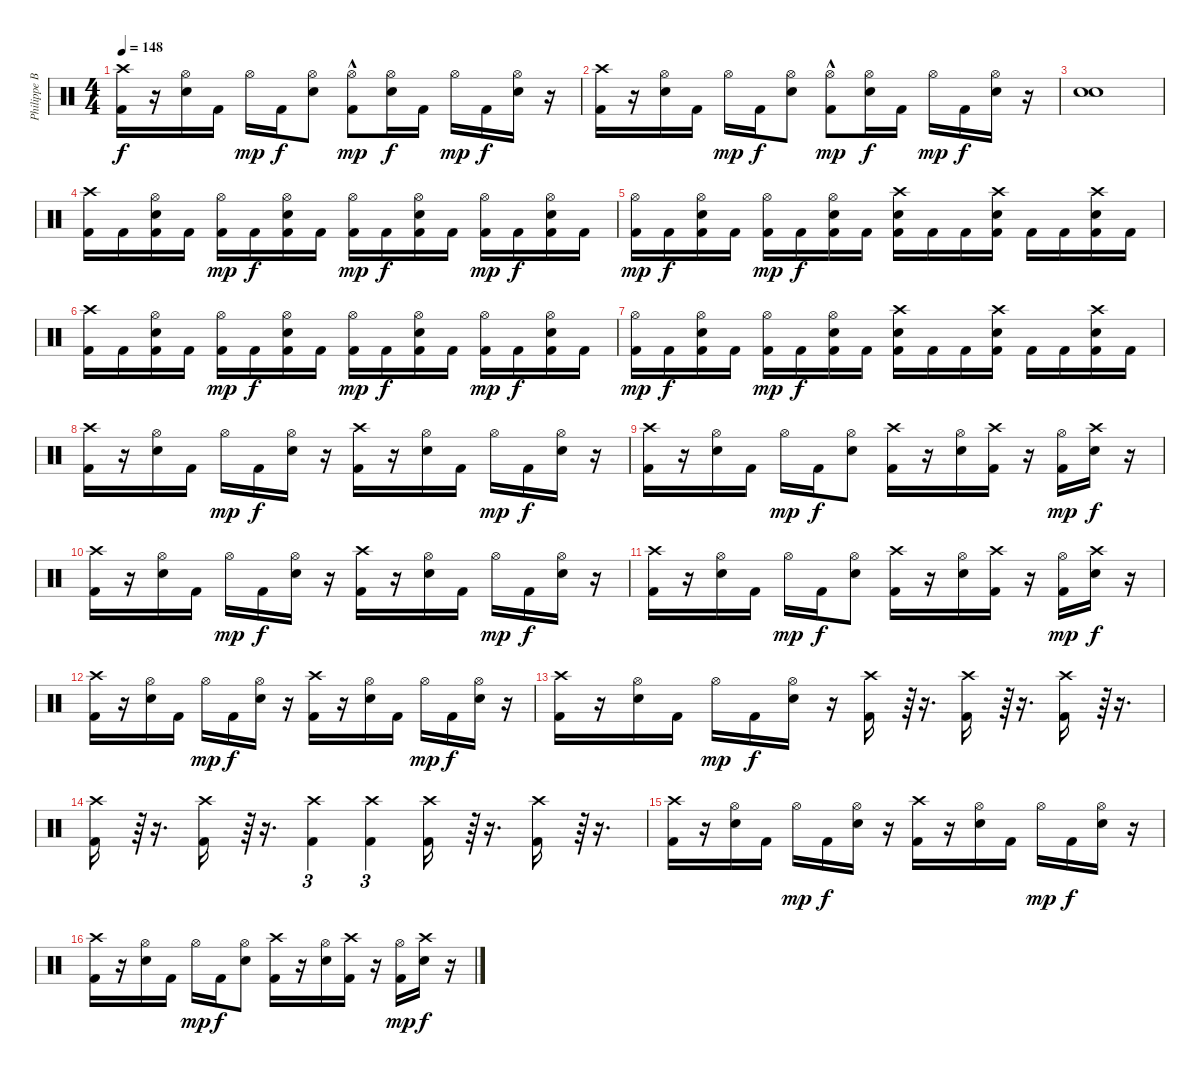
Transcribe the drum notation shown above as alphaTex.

\track ("Philippe Borda" "Philippe B") {instrument percussion}
\staff {score}
\articulation defaults
\ts (4 4)
\tempo 148
\clef neutral
\ks c
("Crash high (hit)" "Kick (hit) 2").16{dy f} r.16 ("Snare (hit) 2" "Hi-Hat (open)").16 "Kick (hit) 2".16 "Hi-Hat (open)".16{dy mp} "Kick (hit) 2".16{dy f} ("Snare (hit) 2" "Hi-Hat (open)").8 ("Kick (hit) 2"{hac} "Hi-Hat (open)").8{dy mp} ("Snare (hit) 2" "Hi-Hat (open)").16{dy f} "Kick (hit) 2".16 "Hi-Hat (open)".16{dy mp} "Kick (hit) 2".16{dy f} ("Snare (hit) 2" "Hi-Hat (open)").16 r.16 |
("Crash high (hit)" "Kick (hit) 2").16 r.16 ("Snare (hit) 2" "Hi-Hat (open)").16 "Kick (hit) 2".16 "Hi-Hat (open)".16{dy mp} "Kick (hit) 2".16{dy f} ("Snare (hit) 2" "Hi-Hat (open)").8 ("Kick (hit) 2"{hac} "Hi-Hat (open)").8{dy mp} ("Snare (hit) 2" "Hi-Hat (open)").16{dy f} "Kick (hit) 2".16 "Hi-Hat (open)".16{dy mp} "Kick (hit) 2".16{dy f} ("Snare (hit) 2" "Hi-Hat (open)").16 r.16 |
("Snare (hit) 2" "Snare (hit) 2").1 |
("Crash high (hit)" "Kick (hit) 2").16 "Kick (hit) 2".16 ("Kick (hit) 2" "Snare (hit) 2" "Hi-Hat (open)").16 "Kick (hit) 2".16 ("Kick (hit) 2" "Hi-Hat (open)").16{dy mp} "Kick (hit) 2".16{dy f} ("Kick (hit) 2" "Snare (hit) 2" "Hi-Hat (open)").16 "Kick (hit) 2".16 ("Kick (hit) 2" "Hi-Hat (open)").16{dy mp} "Kick (hit) 2".16{dy f} ("Kick (hit) 2" "Snare (hit) 2" "Hi-Hat (open)").16 "Kick (hit) 2".16 ("Kick (hit) 2" "Hi-Hat (open)").16{dy mp} "Kick (hit) 2".16{dy f} ("Kick (hit) 2" "Snare (hit) 2" "Hi-Hat (open)").16 "Kick (hit) 2".16 |
("Kick (hit) 2" "Hi-Hat (open)").16{dy mp} "Kick (hit) 2".16{dy f} ("Kick (hit) 2" "Snare (hit) 2" "Hi-Hat (open)").16 "Kick (hit) 2".16 ("Kick (hit) 2" "Hi-Hat (open)").16{dy mp} "Kick (hit) 2".16{dy f} ("Kick (hit) 2" "Hi-Hat (open)" "Snare (hit) 2").16 "Kick (hit) 2".16 ("Crash high (hit)" "Kick (hit) 2" "Snare (hit) 2").16 "Kick (hit) 2".16 "Kick (hit) 2".16 ("Crash high (hit)" "Kick (hit) 2" "Snare (hit) 2").16 "Kick (hit) 2".16 "Kick (hit) 2".16 ("Crash high (hit)" "Kick (hit) 2" "Snare (hit) 2").16 "Kick (hit) 2".16 |
("Crash high (hit)" "Kick (hit) 2").16 "Kick (hit) 2".16 ("Kick (hit) 2" "Snare (hit) 2" "Hi-Hat (open)").16 "Kick (hit) 2".16 ("Kick (hit) 2" "Hi-Hat (open)").16{dy mp} "Kick (hit) 2".16{dy f} ("Kick (hit) 2" "Snare (hit) 2" "Hi-Hat (open)").16 "Kick (hit) 2".16 ("Kick (hit) 2" "Hi-Hat (open)").16{dy mp} "Kick (hit) 2".16{dy f} ("Kick (hit) 2" "Snare (hit) 2" "Hi-Hat (open)").16 "Kick (hit) 2".16 ("Kick (hit) 2" "Hi-Hat (open)").16{dy mp} "Kick (hit) 2".16{dy f} ("Kick (hit) 2" "Snare (hit) 2" "Hi-Hat (open)").16 "Kick (hit) 2".16 |
("Kick (hit) 2" "Hi-Hat (open)").16{dy mp} "Kick (hit) 2".16{dy f} ("Kick (hit) 2" "Snare (hit) 2" "Hi-Hat (open)").16 "Kick (hit) 2".16 ("Kick (hit) 2" "Hi-Hat (open)").16{dy mp} "Kick (hit) 2".16{dy f} ("Kick (hit) 2" "Hi-Hat (open)" "Snare (hit) 2").16 "Kick (hit) 2".16 ("Crash high (hit)" "Kick (hit) 2" "Snare (hit) 2").16 "Kick (hit) 2".16 "Kick (hit) 2".16 ("Crash high (hit)" "Kick (hit) 2" "Snare (hit) 2").16 "Kick (hit) 2".16 "Kick (hit) 2".16 ("Crash high (hit)" "Kick (hit) 2" "Snare (hit) 2").16 "Kick (hit) 2".16 |
("Crash high (hit)" "Kick (hit) 2").16 r.16 ("Hi-Hat (open)" "Snare (hit) 2").16 "Kick (hit) 2".16 "Hi-Hat (open)".16{dy mp} "Kick (hit) 2".16{dy f} ("Hi-Hat (open)" "Snare (hit) 2").16 r.16 ("Crash high (hit)" "Kick (hit) 2").16 r.16 ("Hi-Hat (open)" "Snare (hit) 2").16 "Kick (hit) 2".16 "Hi-Hat (open)".16{dy mp} "Kick (hit) 2".16{dy f} ("Hi-Hat (open)" "Snare (hit) 2").16 r.16 |
("Crash high (hit)" "Kick (hit) 2").16 r.16 ("Hi-Hat (open)" "Snare (hit) 2").16 "Kick (hit) 2".16 "Hi-Hat (open)".16{dy mp} "Kick (hit) 2".16{dy f} ("Hi-Hat (open)" "Snare (hit) 2").8 ("Crash high (hit)" "Kick (hit) 2").16 r.16 ("Hi-Hat (open)" "Snare (hit) 2").16 ("Crash high (hit)" "Kick (hit) 2").16 r.16 ("Hi-Hat (open)" "Kick (hit) 2").16{dy mp} ("Crash high (hit)" "Snare (hit) 2").16{dy f} r.16 |
("Crash high (hit)" "Kick (hit) 2").16 r.16 ("Hi-Hat (open)" "Snare (hit) 2").16 "Kick (hit) 2".16 "Hi-Hat (open)".16{dy mp} "Kick (hit) 2".16{dy f} ("Hi-Hat (open)" "Snare (hit) 2").16 r.16 ("Crash high (hit)" "Kick (hit) 2").16 r.16 ("Hi-Hat (open)" "Snare (hit) 2").16 "Kick (hit) 2".16 "Hi-Hat (open)".16{dy mp} "Kick (hit) 2".16{dy f} ("Hi-Hat (open)" "Snare (hit) 2").16 r.16 |
("Crash high (hit)" "Kick (hit) 2").16 r.16 ("Hi-Hat (open)" "Snare (hit) 2").16 "Kick (hit) 2".16 "Hi-Hat (open)".16{dy mp} "Kick (hit) 2".16{dy f} ("Hi-Hat (open)" "Snare (hit) 2").8 ("Crash high (hit)" "Kick (hit) 2").16 r.16 ("Hi-Hat (open)" "Snare (hit) 2").16 ("Crash high (hit)" "Kick (hit) 2").16 r.16 ("Hi-Hat (open)" "Kick (hit) 2").16{dy mp} ("Crash high (hit)" "Snare (hit) 2").16{dy f} r.16 |
("Crash high (hit)" "Kick (hit) 2").16 r.16 ("Hi-Hat (open)" "Snare (hit) 2").16 "Kick (hit) 2".16 "Hi-Hat (open)".16{dy mp} "Kick (hit) 2".16{dy f} ("Hi-Hat (open)" "Snare (hit) 2").16 r.16 ("Crash high (hit)" "Kick (hit) 2").16 r.16 ("Hi-Hat (open)" "Snare (hit) 2").16 "Kick (hit) 2".16 "Hi-Hat (open)".16{dy mp} "Kick (hit) 2".16{dy f} ("Hi-Hat (open)" "Snare (hit) 2").16 r.16 |
("Crash high (hit)" "Kick (hit) 2").16 r.16 ("Snare (hit) 2" "Hi-Hat (open)").16 "Kick (hit) 2".16 "Hi-Hat (open)".16{dy mp} "Kick (hit) 2".16{dy f} ("Snare (hit) 2" "Hi-Hat (open)").16 r.16 ("Crash high (hit)" "Kick (hit) 2").16 r.64{tu (3 2)} r.16{d} ("Crash high (hit)" "Kick (hit) 2").16 r.64{tu (3 2)} r.16{d} ("Crash high (hit)" "Kick (hit) 2").16 r.64{tu (3 2)} r.16{d} |
("Crash high (hit)" "Kick (hit) 2").16 r.64{tu (3 2)} r.16{d} ("Crash high (hit)" "Kick (hit) 2").16 r.64{tu (3 2)} r.16{d} ("Crash high (hit)" "Kick (hit) 2").4{tu (3 2)} ("Crash high (hit)" "Kick (hit) 2").4{tu (3 2)} ("Crash high (hit)" "Kick (hit) 2").16 r.64{tu (3 2)} r.16{d} ("Crash high (hit)" "Kick (hit) 2").16 r.64{tu (3 2)} r.16{d} |
("Crash high (hit)" "Kick (hit) 2").16 r.16 ("Hi-Hat (open)" "Snare (hit) 2").16 "Kick (hit) 2".16 "Hi-Hat (open)".16{dy mp} "Kick (hit) 2".16{dy f} ("Hi-Hat (open)" "Snare (hit) 2").16 r.16 ("Crash high (hit)" "Kick (hit) 2").16 r.16 ("Hi-Hat (open)" "Snare (hit) 2").16 "Kick (hit) 2".16 "Hi-Hat (open)".16{dy mp} "Kick (hit) 2".16{dy f} ("Hi-Hat (open)" "Snare (hit) 2").16 r.16 |
("Crash high (hit)" "Kick (hit) 2").16 r.16 ("Hi-Hat (open)" "Snare (hit) 2").16 "Kick (hit) 2".16 "Hi-Hat (open)".16{dy mp} "Kick (hit) 2".16{dy f} ("Hi-Hat (open)" "Snare (hit) 2").8 ("Crash high (hit)" "Kick (hit) 2").16 r.16 ("Hi-Hat (open)" "Snare (hit) 2").16 ("Crash high (hit)" "Kick (hit) 2").16 r.16 ("Hi-Hat (open)" "Kick (hit) 2").16{dy mp} ("Crash high (hit)" "Snare (hit) 2").16{dy f} r.16
